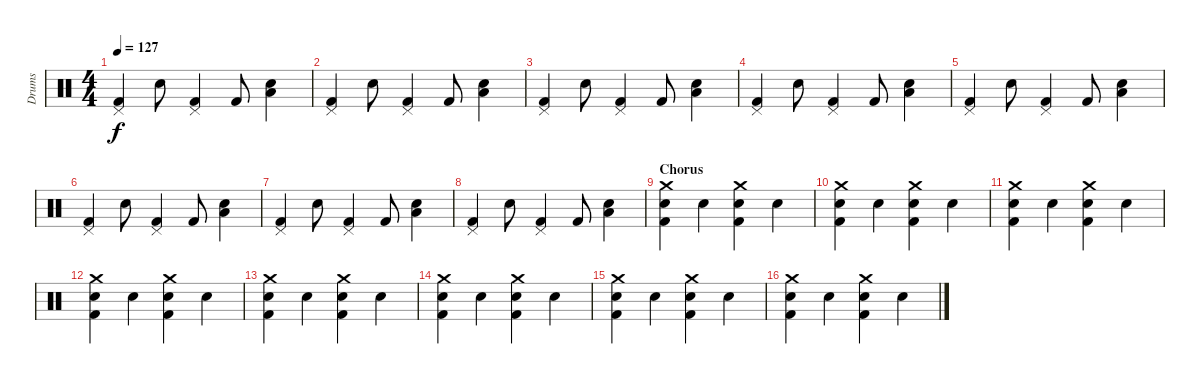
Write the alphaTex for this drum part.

\track ("Drums" "Drums") {instrument percussion}
\staff {score}
\articulation defaults
\ts (4 4)
\tempo 127
\clef neutral
\ks c
("Pedal Hi-Hat (hit)" "Kick (hit) 2").4{dy f} "Snare (hit) 2".8 ("Pedal Hi-Hat (hit)" "Kick (hit) 2").4 "Kick (hit) 2".8 ("Low Floor Tom (hit)" "Snare (hit) 2").4 |
("Pedal Hi-Hat (hit)" "Kick (hit) 2").4 "Snare (hit) 2".8 ("Pedal Hi-Hat (hit)" "Kick (hit) 2").4 "Kick (hit) 2".8 ("Low Floor Tom (hit)" "Snare (hit) 2").4 |
("Pedal Hi-Hat (hit)" "Kick (hit) 2").4 "Snare (hit) 2".8 ("Pedal Hi-Hat (hit)" "Kick (hit) 2").4 "Kick (hit) 2".8 ("Low Floor Tom (hit)" "Snare (hit) 2").4 |
("Pedal Hi-Hat (hit)" "Kick (hit) 2").4 "Snare (hit) 2".8 ("Pedal Hi-Hat (hit)" "Kick (hit) 2").4 "Kick (hit) 2".8 ("Low Floor Tom (hit)" "Snare (hit) 2").4 |
("Pedal Hi-Hat (hit)" "Kick (hit) 2").4 "Snare (hit) 2".8 ("Pedal Hi-Hat (hit)" "Kick (hit) 2").4 "Kick (hit) 2".8 ("Low Floor Tom (hit)" "Snare (hit) 2").4 |
("Pedal Hi-Hat (hit)" "Kick (hit) 2").4 "Snare (hit) 2".8 ("Pedal Hi-Hat (hit)" "Kick (hit) 2").4 "Kick (hit) 2".8 ("Low Floor Tom (hit)" "Snare (hit) 2").4 |
("Pedal Hi-Hat (hit)" "Kick (hit) 2").4 "Snare (hit) 2".8 ("Pedal Hi-Hat (hit)" "Kick (hit) 2").4 "Kick (hit) 2".8 ("Low Floor Tom (hit)" "Snare (hit) 2").4 |
("Pedal Hi-Hat (hit)" "Kick (hit) 2").4 "Snare (hit) 2".8 ("Pedal Hi-Hat (hit)" "Kick (hit) 2").4 "Kick (hit) 2".8 ("Low Floor Tom (hit)" "Snare (hit) 2").4 |
\section ("" "Chorus")
("Crash medium (hit)" "Kick (hit) 2" "Snare (hit) 2").4 "Snare (hit) 2".4 ("Crash medium (hit)" "Kick (hit) 2" "Snare (hit) 2").4 "Snare (hit) 2".4 |
("Crash medium (hit)" "Kick (hit) 2" "Snare (hit) 2").4 "Snare (hit) 2".4 ("Crash medium (hit)" "Kick (hit) 2" "Snare (hit) 2").4 "Snare (hit) 2".4 |
("Crash medium (hit)" "Kick (hit) 2" "Snare (hit) 2").4 "Snare (hit) 2".4 ("Crash medium (hit)" "Kick (hit) 2" "Snare (hit) 2").4 "Snare (hit) 2".4 |
("Crash medium (hit)" "Kick (hit) 2" "Snare (hit) 2").4 "Snare (hit) 2".4 ("Crash medium (hit)" "Kick (hit) 2" "Snare (hit) 2").4 "Snare (hit) 2".4 |
("Crash medium (hit)" "Kick (hit) 2" "Snare (hit) 2").4 "Snare (hit) 2".4 ("Crash medium (hit)" "Kick (hit) 2" "Snare (hit) 2").4 "Snare (hit) 2".4 |
("Crash medium (hit)" "Kick (hit) 2" "Snare (hit) 2").4 "Snare (hit) 2".4 ("Crash medium (hit)" "Kick (hit) 2" "Snare (hit) 2").4 "Snare (hit) 2".4 |
("Crash medium (hit)" "Kick (hit) 2" "Snare (hit) 2").4 "Snare (hit) 2".4 ("Crash medium (hit)" "Kick (hit) 2" "Snare (hit) 2").4 "Snare (hit) 2".4 |
("Crash medium (hit)" "Kick (hit) 2" "Snare (hit) 2").4 "Snare (hit) 2".4 ("Crash medium (hit)" "Kick (hit) 2" "Snare (hit) 2").4 "Snare (hit) 2".4
